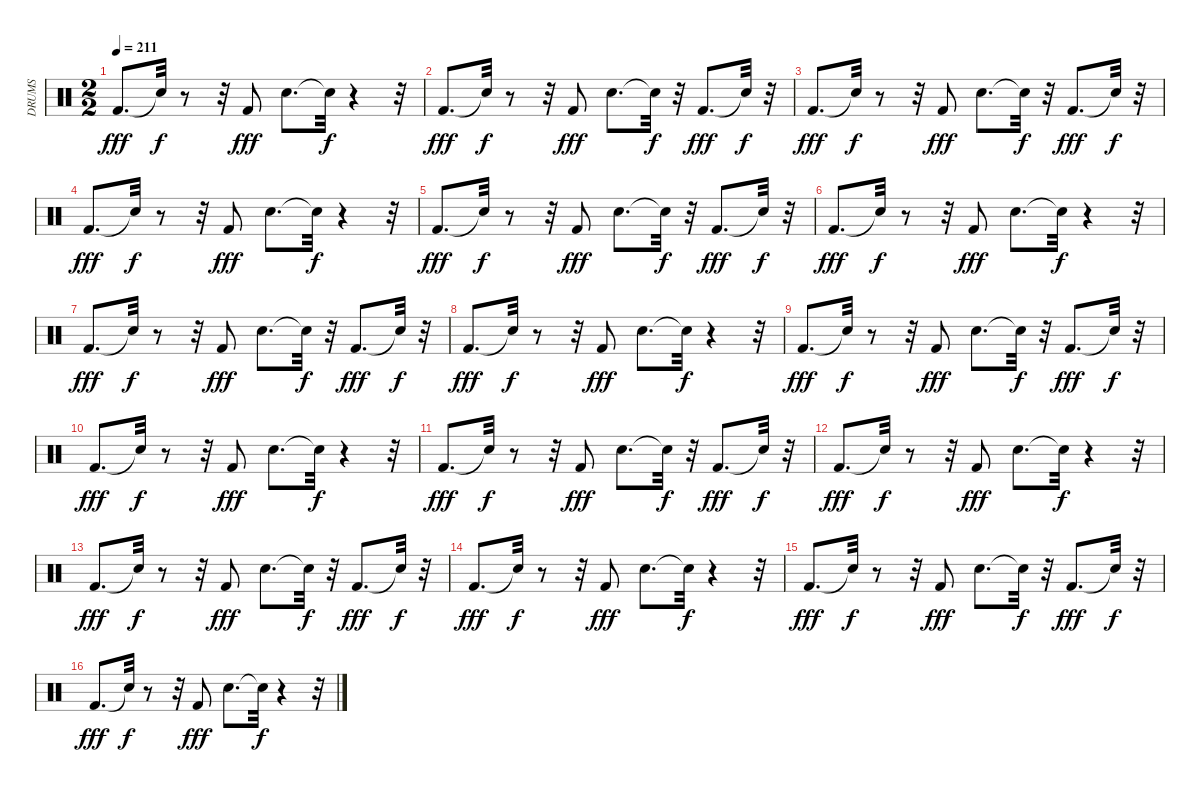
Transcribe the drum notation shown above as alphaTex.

\track ("DRUMS" "DRUMS") {instrument percussion}
\staff {score}
\articulation defaults
\ts (2 2)
\tempo 211
\clef neutral
\ks c "Kick (hit) 2".8{d dy fff} "Snare (hit)"{t}.32{dy f}
r.8 r.32 "Kick (hit) 2".8{dy fff} "Snare (hit) 2".8{d} "Snare (hit)"{t}.32{dy f} r.4 r.32 |
"Kick (hit) 2".8{d dy fff} "Snare (hit)"{t}.32{dy f} r.8 r.32 "Kick (hit) 2".8{dy fff} "Snare (hit) 2".8{d} "Snare (hit)"{t}.32{dy f} r.32 "Kick (hit) 2".8{d dy fff} "Snare (hit)"{t}.32{dy f} r.32 |
"Kick (hit) 2".8{d dy fff} "Snare (hit)"{t}.32{dy f} r.8 r.32 "Kick (hit) 2".8{dy fff} "Snare (hit) 2".8{d} "Snare (hit)"{t}.32{dy f} r.32 "Kick (hit) 2".8{d dy fff} "Snare (hit)"{t}.32{dy f} r.32 |
"Kick (hit) 2".8{d dy fff} "Snare (hit)"{t}.32{dy f} r.8 r.32 "Kick (hit) 2".8{dy fff} "Snare (hit) 2".8{d} "Snare (hit)"{t}.32{dy f} r.4 r.32 |
"Kick (hit) 2".8{d dy fff} "Snare (hit)"{t}.32{dy f} r.8 r.32 "Kick (hit) 2".8{dy fff} "Snare (hit) 2".8{d} "Snare (hit)"{t}.32{dy f} r.32 "Kick (hit) 2".8{d dy fff} "Snare (hit)"{t}.32{dy f} r.32 |
"Kick (hit) 2".8{d dy fff} "Snare (hit)"{t}.32{dy f} r.8 r.32 "Kick (hit) 2".8{dy fff} "Snare (hit) 2".8{d} "Snare (hit)"{t}.32{dy f} r.4 r.32 |
"Kick (hit) 2".8{d dy fff} "Snare (hit)"{t}.32{dy f} r.8 r.32 "Kick (hit) 2".8{dy fff} "Snare (hit) 2".8{d} "Snare (hit)"{t}.32{dy f} r.32 "Kick (hit) 2".8{d dy fff} "Snare (hit)"{t}.32{dy f} r.32 |
"Kick (hit) 2".8{d dy fff} "Snare (hit)"{t}.32{dy f} r.8 r.32 "Kick (hit) 2".8{dy fff} "Snare (hit) 2".8{d} "Snare (hit)"{t}.32{dy f} r.4 r.32 |
"Kick (hit) 2".8{d dy fff} "Snare (hit)"{t}.32{dy f} r.8 r.32 "Kick (hit) 2".8{dy fff} "Snare (hit) 2".8{d} "Snare (hit)"{t}.32{dy f} r.32 "Kick (hit) 2".8{d dy fff} "Snare (hit)"{t}.32{dy f} r.32 |
"Kick (hit) 2".8{d dy fff} "Snare (hit)"{t}.32{dy f} r.8 r.32 "Kick (hit) 2".8{dy fff} "Snare (hit) 2".8{d} "Snare (hit)"{t}.32{dy f} r.4 r.32 |
"Kick (hit) 2".8{d dy fff} "Snare (hit)"{t}.32{dy f} r.8 r.32 "Kick (hit) 2".8{dy fff} "Snare (hit) 2".8{d} "Snare (hit)"{t}.32{dy f} r.32 "Kick (hit) 2".8{d dy fff} "Snare (hit)"{t}.32{dy f} r.32 |
"Kick (hit) 2".8{d dy fff} "Snare (hit)"{t}.32{dy f} r.8 r.32 "Kick (hit) 2".8{dy fff} "Snare (hit) 2".8{d} "Snare (hit)"{t}.32{dy f} r.4 r.32 |
"Kick (hit) 2".8{d dy fff} "Snare (hit)"{t}.32{dy f} r.8 r.32 "Kick (hit) 2".8{dy fff} "Snare (hit) 2".8{d} "Snare (hit)"{t}.32{dy f} r.32 "Kick (hit) 2".8{d dy fff} "Snare (hit)"{t}.32{dy f} r.32 |
"Kick (hit) 2".8{d dy fff} "Snare (hit)"{t}.32{dy f} r.8 r.32 "Kick (hit) 2".8{dy fff} "Snare (hit) 2".8{d} "Snare (hit)"{t}.32{dy f} r.4 r.32 |
"Kick (hit) 2".8{d dy fff} "Snare (hit)"{t}.32{dy f} r.8 r.32 "Kick (hit) 2".8{dy fff} "Snare (hit) 2".8{d} "Snare (hit)"{t}.32{dy f} r.32 "Kick (hit) 2".8{d dy fff} "Snare (hit)"{t}.32{dy f} r.32 |
"Kick (hit) 2".8{d dy fff} "Snare (hit)"{t}.32{dy f} r.8 r.32 "Kick (hit) 2".8{dy fff} "Snare (hit) 2".8{d} "Snare (hit)"{t}.32{dy f} r.4 r.32
